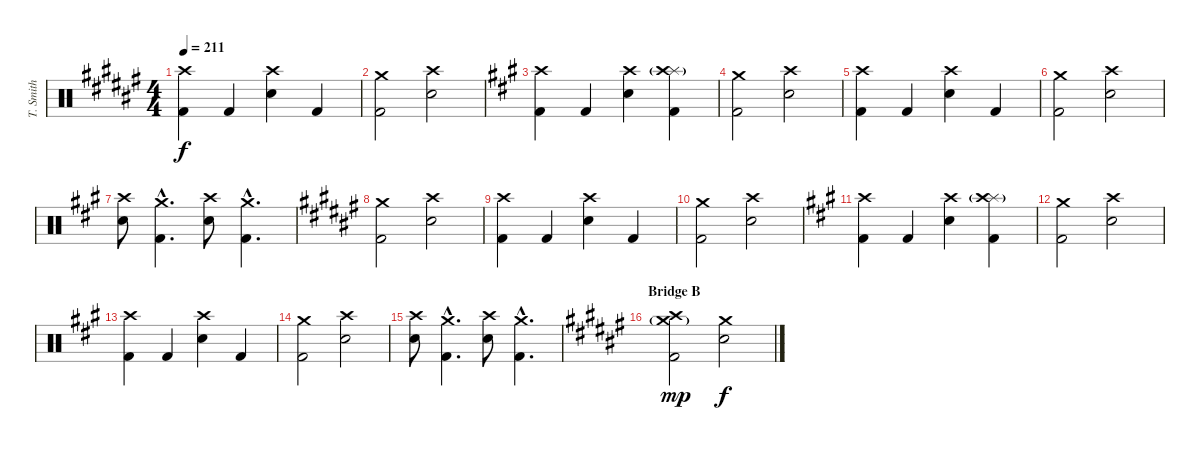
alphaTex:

\track ("T. Smith" "T. Smith") {instrument percussion}
\staff {score}
\articulation defaults
\ts (4 4)
\tempo 211
\clef neutral
\ks d#minor
("Crash high (hit)" "Kick (hit) 2").4{dy f} "Kick (hit) 2".4 ("Crash high (hit)" "Electric Snare (hit)").4 "Kick (hit) 2".4 |
("Crash medium (hit)" "Kick (hit) 2").2 ("Crash high (hit)" "Electric Snare (hit)").2 |
\ks f#minor
("Crash high (hit)" "Kick (hit) 2").4 "Kick (hit) 2".4 ("Crash high (hit)" "Electric Snare (hit)").4 ("Splash (hit)" "Crash high (hit)"{g} "Kick (hit) 2").4 |
("Crash medium (hit)" "Kick (hit) 2").2 ("Crash high (hit)" "Electric Snare (hit)").2 |
("Crash high (hit)" "Kick (hit) 2").4 "Kick (hit) 2".4 ("Crash high (hit)" "Electric Snare (hit)").4 "Kick (hit) 2".4 |
("Crash medium (hit)" "Kick (hit) 2").2 ("Crash high (hit)" "Electric Snare (hit)").2 |
("Crash high (hit)" "Electric Snare (hit)").8 ("Crash medium (hit)"{hac} "Kick (hit) 2"{hac}).4{d} ("Crash high (hit)" "Electric Snare (hit)").8 ("Crash medium (hit)"{hac} "Kick (hit) 2"{hac}).4{d} |
\ks d#minor
("Crash medium (hit)" "Kick (hit) 2").2 ("Crash high (hit)" "Electric Snare (hit)").2 |
("Crash high (hit)" "Kick (hit) 2").4 "Kick (hit) 2".4 ("Crash high (hit)" "Electric Snare (hit)").4 "Kick (hit) 2".4 |
("Crash medium (hit)" "Kick (hit) 2").2 ("Crash high (hit)" "Electric Snare (hit)").2 |
\ks f#minor
("Crash high (hit)" "Kick (hit) 2").4 "Kick (hit) 2".4 ("Crash high (hit)" "Electric Snare (hit)").4 ("Splash (hit)" "Crash high (hit)"{g} "Kick (hit) 2").4 |
("Crash medium (hit)" "Kick (hit) 2").2 ("Crash high (hit)" "Electric Snare (hit)").2 |
("Crash high (hit)" "Kick (hit) 2").4 "Kick (hit) 2".4 ("Crash high (hit)" "Electric Snare (hit)").4 "Kick (hit) 2".4 |
("Crash medium (hit)" "Kick (hit) 2").2 ("Crash high (hit)" "Electric Snare (hit)").2 |
("Crash high (hit)" "Electric Snare (hit)").8 ("Crash medium (hit)"{hac} "Kick (hit) 2"{hac}).4{d} ("Crash high (hit)" "Electric Snare (hit)").8 ("Crash medium (hit)"{hac} "Kick (hit) 2"{hac}).4{d} |
\section ("" "Bridge B")
\ks d#minor
("Crash medium (hit)"{g} "Crash high (hit)" "Kick (hit) 2").2{dy mp} ("Crash medium (hit)" "Electric Snare (hit)").2{dy f}
